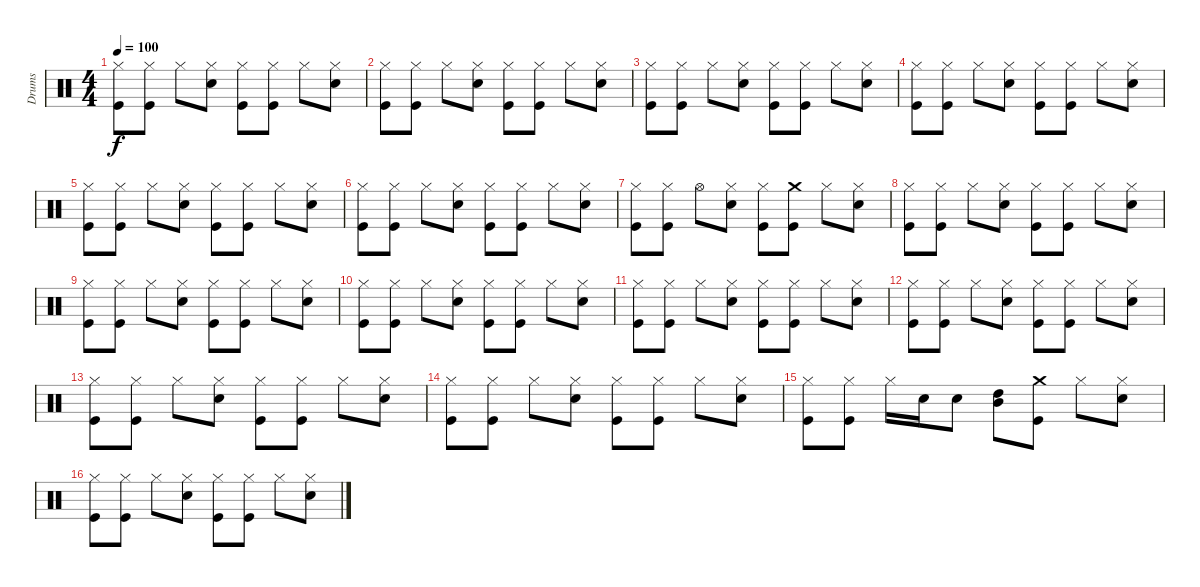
\track ("Drums" "Drums") {instrument percussion}
\staff {score}
\articulation defaults
\ts (4 4)
\tempo 100
\clef neutral
\ks c
("Hi-Hat (closed)" "Kick (hit)").8{dy f} ("Hi-Hat (closed)" "Kick (hit)").8 "Hi-Hat (closed)".8 ("Hi-Hat (closed)" "Snare (hit) 2").8 ("Hi-Hat (closed)" "Kick (hit)").8 ("Hi-Hat (closed)" "Kick (hit)").8 "Hi-Hat (closed)".8 ("Hi-Hat (closed)" "Snare (hit) 2").8 |
("Hi-Hat (closed)" "Kick (hit)").8 ("Hi-Hat (closed)" "Kick (hit)").8 "Hi-Hat (closed)".8 ("Hi-Hat (closed)" "Snare (hit) 2").8 ("Hi-Hat (closed)" "Kick (hit)").8 ("Hi-Hat (closed)" "Kick (hit)").8 "Hi-Hat (closed)".8 ("Hi-Hat (closed)" "Snare (hit) 2").8 |
("Hi-Hat (closed)" "Kick (hit)").8 ("Hi-Hat (closed)" "Kick (hit)").8 "Hi-Hat (closed)".8 ("Hi-Hat (closed)" "Snare (hit) 2").8 ("Hi-Hat (closed)" "Kick (hit)").8 ("Hi-Hat (closed)" "Kick (hit)").8 "Hi-Hat (closed)".8 ("Hi-Hat (closed)" "Snare (hit) 2").8 |
("Hi-Hat (closed)" "Kick (hit)").8 ("Hi-Hat (closed)" "Kick (hit)").8 "Hi-Hat (closed)".8 ("Hi-Hat (closed)" "Snare (hit) 2").8 ("Hi-Hat (closed)" "Kick (hit)").8 ("Hi-Hat (closed)" "Kick (hit)").8 "Hi-Hat (closed)".8 ("Hi-Hat (closed)" "Snare (hit) 2").8 |
("Hi-Hat (closed)" "Kick (hit)").8 ("Hi-Hat (closed)" "Kick (hit)").8 "Hi-Hat (closed)".8 ("Hi-Hat (closed)" "Snare (hit) 2").8 ("Hi-Hat (closed)" "Kick (hit)").8 ("Hi-Hat (closed)" "Kick (hit)").8 "Hi-Hat (closed)".8 ("Hi-Hat (closed)" "Snare (hit) 2").8 |
("Hi-Hat (closed)" "Kick (hit)").8 ("Hi-Hat (closed)" "Kick (hit)").8 "Hi-Hat (closed)".8 ("Hi-Hat (closed)" "Snare (hit) 2").8 ("Hi-Hat (closed)" "Kick (hit)").8 ("Hi-Hat (closed)" "Kick (hit)").8 "Hi-Hat (closed)".8 ("Hi-Hat (closed)" "Snare (hit) 2").8 |
("Hi-Hat (closed)" "Kick (hit)").8 ("Hi-Hat (closed)" "Kick (hit)").8 "Hi-Hat (open)".8 ("Hi-Hat (closed)" "Snare (hit) 2").8 ("Hi-Hat (closed)" "Kick (hit)").8 ("Crash medium (hit)" "Kick (hit)").8 "Hi-Hat (closed)".8 ("Hi-Hat (closed)" "Snare (hit) 2").8 |
("Hi-Hat (closed)" "Kick (hit)").8 ("Hi-Hat (closed)" "Kick (hit)").8 "Hi-Hat (closed)".8 ("Hi-Hat (closed)" "Snare (hit) 2").8 ("Hi-Hat (closed)" "Kick (hit)").8 ("Hi-Hat (closed)" "Kick (hit)").8 "Hi-Hat (closed)".8 ("Hi-Hat (closed)" "Snare (hit) 2").8 |
("Hi-Hat (closed)" "Kick (hit)").8 ("Hi-Hat (closed)" "Kick (hit)").8 "Hi-Hat (closed)".8 ("Hi-Hat (closed)" "Snare (hit) 2").8 ("Hi-Hat (closed)" "Kick (hit)").8 ("Hi-Hat (closed)" "Kick (hit)").8 "Hi-Hat (closed)".8 ("Hi-Hat (closed)" "Snare (hit) 2").8 |
("Hi-Hat (closed)" "Kick (hit)").8 ("Hi-Hat (closed)" "Kick (hit)").8 "Hi-Hat (closed)".8 ("Hi-Hat (closed)" "Snare (hit) 2").8 ("Hi-Hat (closed)" "Kick (hit)").8 ("Hi-Hat (closed)" "Kick (hit)").8 "Hi-Hat (closed)".8 ("Hi-Hat (closed)" "Snare (hit) 2").8 |
("Hi-Hat (closed)" "Kick (hit)").8 ("Hi-Hat (closed)" "Kick (hit)").8 "Hi-Hat (closed)".8 ("Hi-Hat (closed)" "Snare (hit) 2").8 ("Hi-Hat (closed)" "Kick (hit)").8 ("Hi-Hat (closed)" "Kick (hit)").8 "Hi-Hat (closed)".8 ("Hi-Hat (closed)" "Snare (hit) 2").8 |
("Hi-Hat (closed)" "Kick (hit)").8 ("Hi-Hat (closed)" "Kick (hit)").8 "Hi-Hat (closed)".8 ("Hi-Hat (closed)" "Snare (hit) 2").8 ("Hi-Hat (closed)" "Kick (hit)").8 ("Hi-Hat (closed)" "Kick (hit)").8 "Hi-Hat (closed)".8 ("Hi-Hat (closed)" "Snare (hit) 2").8 |
("Hi-Hat (closed)" "Kick (hit)").8 ("Hi-Hat (closed)" "Kick (hit)").8 "Hi-Hat (closed)".8 ("Hi-Hat (closed)" "Snare (hit) 2").8 ("Hi-Hat (closed)" "Kick (hit)").8 ("Hi-Hat (closed)" "Kick (hit)").8 "Hi-Hat (closed)".8 ("Hi-Hat (closed)" "Snare (hit) 2").8 |
("Hi-Hat (closed)" "Kick (hit)").8 ("Hi-Hat (closed)" "Kick (hit)").8 "Hi-Hat (closed)".8 ("Hi-Hat (closed)" "Snare (hit) 2").8 ("Hi-Hat (closed)" "Kick (hit)").8 ("Hi-Hat (closed)" "Kick (hit)").8 "Hi-Hat (closed)".8 ("Hi-Hat (closed)" "Snare (hit) 2").8 |
("Hi-Hat (closed)" "Kick (hit)").8 ("Hi-Hat (closed)" "Kick (hit)").8 "Hi-Hat (closed)".16 "Snare (hit) 2".16 "Snare (hit) 2".8 ("High Tom (hit)" "Mid Tom (hit)").8 ("Crash medium (hit)" "Kick (hit)").8 "Hi-Hat (closed)".8 ("Hi-Hat (closed)" "Snare (hit) 2").8 |
("Hi-Hat (closed)" "Kick (hit)").8 ("Hi-Hat (closed)" "Kick (hit)").8 "Hi-Hat (closed)".8 ("Hi-Hat (closed)" "Snare (hit) 2").8 ("Hi-Hat (closed)" "Kick (hit)").8 ("Hi-Hat (closed)" "Kick (hit)").8 "Hi-Hat (closed)".8 ("Hi-Hat (closed)" "Snare (hit) 2").8
